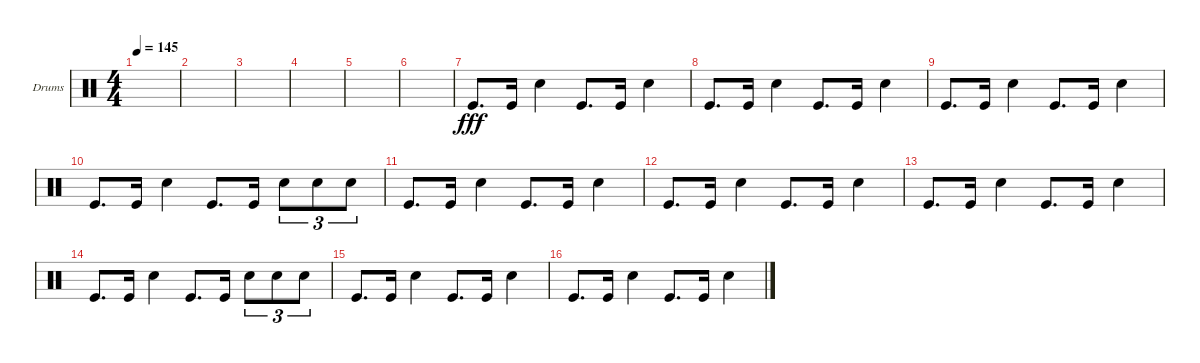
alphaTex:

\defaultSystemsLayout 4
\bracketExtendMode groupsimilarinstruments
\firstSystemTrackNameOrientation horizontal
\otherSystemsTrackNameOrientation horizontal
\track ("Helders" "Drums") {instrument percussion}
\staff {score}
\articulation defaults
\ts (4 4)
\tempo 145
\clef neutral
\ks c
|
|
|
|
|
|
"Kick (hit)".8{d dy fff} "Kick (hit)".16 "Snare (hit) 2".4 "Kick (hit)".8{d} "Kick (hit)".16 "Snare (hit) 2".4 |
"Kick (hit)".8{d} "Kick (hit)".16 "Snare (hit) 2".4 "Kick (hit)".8{d} "Kick (hit)".16 "Snare (hit) 2".4 |
"Kick (hit)".8{d} "Kick (hit)".16 "Snare (hit) 2".4 "Kick (hit)".8{d} "Kick (hit)".16 "Snare (hit) 2".4 |
"Kick (hit)".8{d} "Kick (hit)".16 "Snare (hit) 2".4 "Kick (hit)".8{d} "Kick (hit)".16 "Snare (hit) 2".8{tu (3 2)} "Snare (hit) 2".8{tu (3 2)} "Snare (hit) 2".8{tu (3 2)} |
"Kick (hit)".8{d} "Kick (hit)".16 "Snare (hit) 2".4 "Kick (hit)".8{d} "Kick (hit)".16 "Snare (hit) 2".4 |
"Kick (hit)".8{d} "Kick (hit)".16 "Snare (hit) 2".4 "Kick (hit)".8{d} "Kick (hit)".16 "Snare (hit) 2".4 |
"Kick (hit)".8{d} "Kick (hit)".16 "Snare (hit) 2".4 "Kick (hit)".8{d} "Kick (hit)".16 "Snare (hit) 2".4 |
"Kick (hit)".8{d} "Kick (hit)".16 "Snare (hit) 2".4 "Kick (hit)".8{d} "Kick (hit)".16 "Snare (hit) 2".8{tu (3 2)} "Snare (hit) 2".8{tu (3 2)} "Snare (hit) 2".8{tu (3 2)} |
"Kick (hit)".8{d} "Kick (hit)".16 "Snare (hit) 2".4 "Kick (hit)".8{d} "Kick (hit)".16 "Snare (hit) 2".4 |
"Kick (hit)".8{d} "Kick (hit)".16 "Snare (hit) 2".4 "Kick (hit)".8{d} "Kick (hit)".16 "Snare (hit) 2".4
